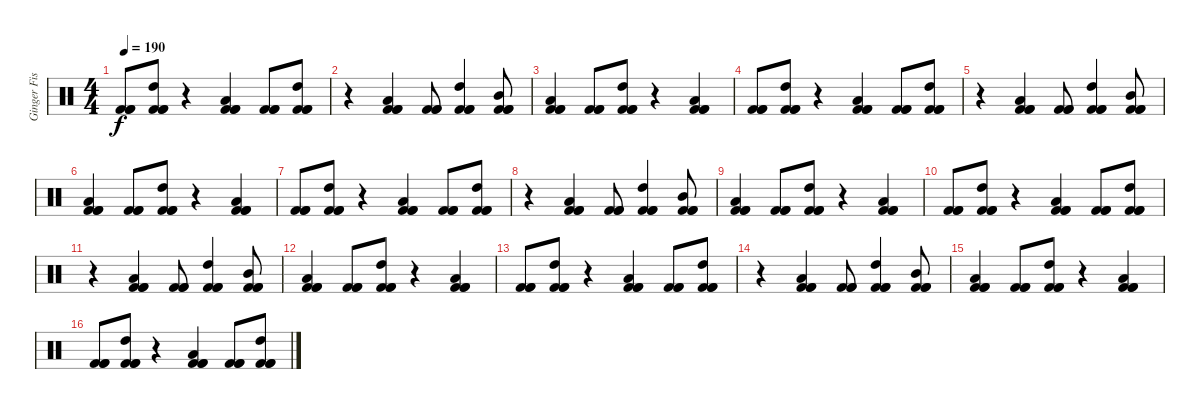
\track ("Ginger Fish" "Ginger Fis") {instrument percussion}
\staff {score}
\articulation defaults
\ts (4 4)
\tempo 190
\clef neutral
\ks c
("Kick (hit) 2" "Kick (hit) 2" "Kick (hit) 2").8{dy f} ("High Tom (hit)" "Kick (hit) 2" "Kick (hit) 2" "Kick (hit) 2").8 r.4 ("Low Tom (hit)" "Kick (hit) 2" "Kick (hit) 2" "Kick (hit) 2").4 ("Kick (hit) 2" "Kick (hit) 2" "Kick (hit) 2").8 ("High Tom (hit)" "Kick (hit) 2" "Kick (hit) 2" "Kick (hit) 2").8 |
r.4 ("Low Tom (hit)" "Kick (hit) 2" "Kick (hit) 2" "Kick (hit) 2").4 ("Kick (hit) 2" "Kick (hit) 2" "Kick (hit) 2").8 ("High Tom (hit)" "Kick (hit) 2" "Kick (hit) 2" "Kick (hit) 2").4 ("Mid Tom (hit)" "Kick (hit) 2" "Kick (hit) 2" "Kick (hit) 2").8 |
("Low Tom (hit)" "Kick (hit) 2" "Kick (hit) 2" "Kick (hit) 2").4 ("Kick (hit) 2" "Kick (hit) 2" "Kick (hit) 2").8 ("High Tom (hit)" "Kick (hit) 2" "Kick (hit) 2" "Kick (hit) 2").8 r.4 ("Low Tom (hit)" "Kick (hit) 2" "Kick (hit) 2" "Kick (hit) 2").4 |
("Kick (hit) 2" "Kick (hit) 2" "Kick (hit) 2").8 ("High Tom (hit)" "Kick (hit) 2" "Kick (hit) 2" "Kick (hit) 2").8 r.4 ("Low Tom (hit)" "Kick (hit) 2" "Kick (hit) 2" "Kick (hit) 2").4 ("Kick (hit) 2" "Kick (hit) 2" "Kick (hit) 2").8 ("High Tom (hit)" "Kick (hit) 2" "Kick (hit) 2" "Kick (hit) 2").8 |
r.4 ("Low Tom (hit)" "Kick (hit) 2" "Kick (hit) 2" "Kick (hit) 2").4 ("Kick (hit) 2" "Kick (hit) 2" "Kick (hit) 2").8 ("High Tom (hit)" "Kick (hit) 2" "Kick (hit) 2" "Kick (hit) 2").4 ("Mid Tom (hit)" "Kick (hit) 2" "Kick (hit) 2" "Kick (hit) 2").8 |
("Low Tom (hit)" "Kick (hit) 2" "Kick (hit) 2" "Kick (hit) 2").4 ("Kick (hit) 2" "Kick (hit) 2" "Kick (hit) 2").8 ("High Tom (hit)" "Kick (hit) 2" "Kick (hit) 2" "Kick (hit) 2").8 r.4 ("Low Tom (hit)" "Kick (hit) 2" "Kick (hit) 2" "Kick (hit) 2").4 |
("Kick (hit) 2" "Kick (hit) 2" "Kick (hit) 2").8 ("High Tom (hit)" "Kick (hit) 2" "Kick (hit) 2" "Kick (hit) 2").8 r.4 ("Low Tom (hit)" "Kick (hit) 2" "Kick (hit) 2" "Kick (hit) 2").4 ("Kick (hit) 2" "Kick (hit) 2" "Kick (hit) 2").8 ("High Tom (hit)" "Kick (hit) 2" "Kick (hit) 2" "Kick (hit) 2").8 |
r.4 ("Low Tom (hit)" "Kick (hit) 2" "Kick (hit) 2" "Kick (hit) 2").4 ("Kick (hit) 2" "Kick (hit) 2" "Kick (hit) 2").8 ("High Tom (hit)" "Kick (hit) 2" "Kick (hit) 2" "Kick (hit) 2").4 ("Mid Tom (hit)" "Kick (hit) 2" "Kick (hit) 2" "Kick (hit) 2").8 |
("Low Tom (hit)" "Kick (hit) 2" "Kick (hit) 2" "Kick (hit) 2").4 ("Kick (hit) 2" "Kick (hit) 2" "Kick (hit) 2").8 ("High Tom (hit)" "Kick (hit) 2" "Kick (hit) 2" "Kick (hit) 2").8 r.4 ("Low Tom (hit)" "Kick (hit) 2" "Kick (hit) 2" "Kick (hit) 2").4 |
("Kick (hit) 2" "Kick (hit) 2" "Kick (hit) 2").8 ("High Tom (hit)" "Kick (hit) 2" "Kick (hit) 2" "Kick (hit) 2").8 r.4 ("Low Tom (hit)" "Kick (hit) 2" "Kick (hit) 2" "Kick (hit) 2").4 ("Kick (hit) 2" "Kick (hit) 2" "Kick (hit) 2").8 ("High Tom (hit)" "Kick (hit) 2" "Kick (hit) 2" "Kick (hit) 2").8 |
r.4 ("Low Tom (hit)" "Kick (hit) 2" "Kick (hit) 2" "Kick (hit) 2").4 ("Kick (hit) 2" "Kick (hit) 2" "Kick (hit) 2").8 ("High Tom (hit)" "Kick (hit) 2" "Kick (hit) 2" "Kick (hit) 2").4 ("Mid Tom (hit)" "Kick (hit) 2" "Kick (hit) 2" "Kick (hit) 2").8 |
("Low Tom (hit)" "Kick (hit) 2" "Kick (hit) 2" "Kick (hit) 2").4 ("Kick (hit) 2" "Kick (hit) 2" "Kick (hit) 2").8 ("High Tom (hit)" "Kick (hit) 2" "Kick (hit) 2" "Kick (hit) 2").8 r.4 ("Low Tom (hit)" "Kick (hit) 2" "Kick (hit) 2" "Kick (hit) 2").4 |
("Kick (hit) 2" "Kick (hit) 2" "Kick (hit) 2").8 ("High Tom (hit)" "Kick (hit) 2" "Kick (hit) 2" "Kick (hit) 2").8 r.4 ("Low Tom (hit)" "Kick (hit) 2" "Kick (hit) 2" "Kick (hit) 2").4 ("Kick (hit) 2" "Kick (hit) 2" "Kick (hit) 2").8 ("High Tom (hit)" "Kick (hit) 2" "Kick (hit) 2" "Kick (hit) 2").8 |
r.4 ("Low Tom (hit)" "Kick (hit) 2" "Kick (hit) 2" "Kick (hit) 2").4 ("Kick (hit) 2" "Kick (hit) 2" "Kick (hit) 2").8 ("High Tom (hit)" "Kick (hit) 2" "Kick (hit) 2" "Kick (hit) 2").4 ("Mid Tom (hit)" "Kick (hit) 2" "Kick (hit) 2" "Kick (hit) 2").8 |
("Low Tom (hit)" "Kick (hit) 2" "Kick (hit) 2" "Kick (hit) 2").4 ("Kick (hit) 2" "Kick (hit) 2" "Kick (hit) 2").8 ("High Tom (hit)" "Kick (hit) 2" "Kick (hit) 2" "Kick (hit) 2").8 r.4 ("Low Tom (hit)" "Kick (hit) 2" "Kick (hit) 2" "Kick (hit) 2").4 |
("Kick (hit) 2" "Kick (hit) 2" "Kick (hit) 2").8 ("High Tom (hit)" "Kick (hit) 2" "Kick (hit) 2" "Kick (hit) 2").8 r.4 ("Low Tom (hit)" "Kick (hit) 2" "Kick (hit) 2" "Kick (hit) 2").4 ("Kick (hit) 2" "Kick (hit) 2" "Kick (hit) 2").8 ("High Tom (hit)" "Kick (hit) 2" "Kick (hit) 2" "Kick (hit) 2").8
